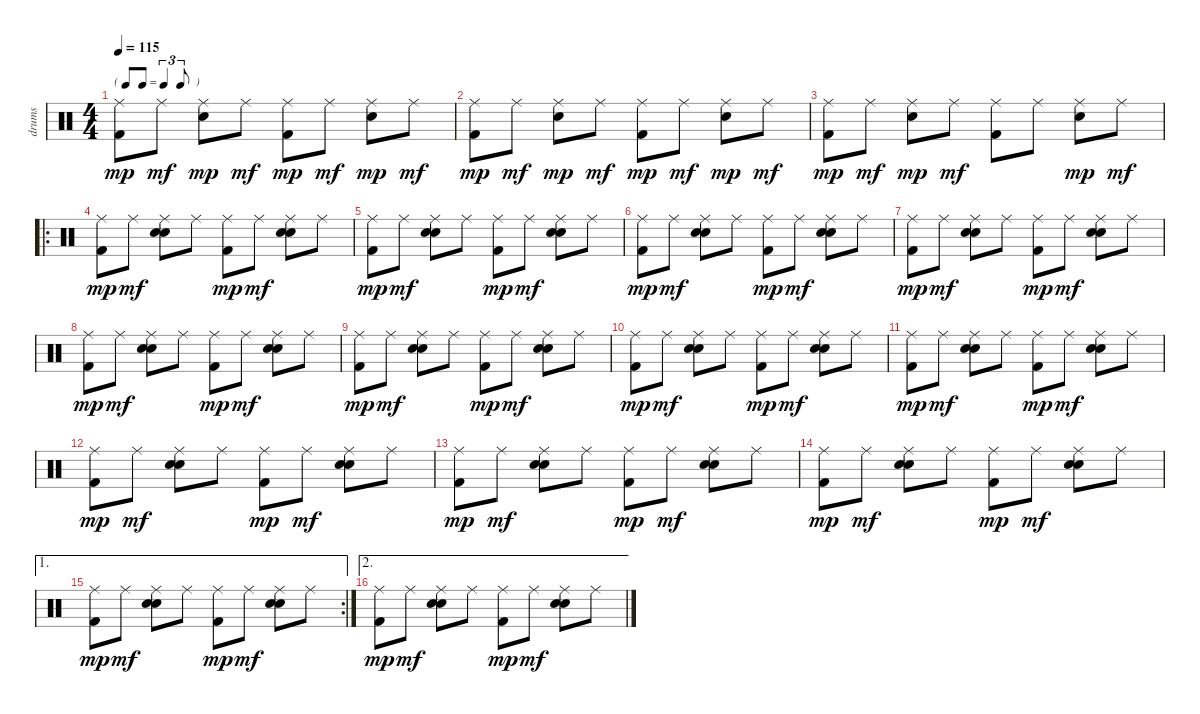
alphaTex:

\track ("drums" "drums") {instrument percussion}
\staff {score}
\articulation defaults
\ts (4 4)
\tf triplet8th
\tempo 115
\clef neutral
\ks c
("Ride (middle)" "Kick (hit) 2").8{dy mp} "Ride (middle)".8{dy mf} ("Ride (middle)" "Snare (hit) 2").8{dy mp} "Ride (middle)".8{dy mf} ("Ride (middle)" "Kick (hit) 2").8{dy mp} "Ride (middle)".8{dy mf} ("Ride (middle)" "Snare (hit) 2").8{dy mp} "Ride (middle)".8{dy mf} |
("Ride (middle)" "Kick (hit) 2").8{dy mp} "Ride (middle)".8{dy mf} ("Ride (middle)" "Snare (hit) 2").8{dy mp} "Ride (middle)".8{dy mf} ("Ride (middle)" "Kick (hit) 2").8{dy mp} "Ride (middle)".8{dy mf} ("Ride (middle)" "Snare (hit) 2").8{dy mp} "Ride (middle)".8{dy mf} |
("Ride (middle)" "Kick (hit) 2").8{dy mp} "Ride (middle)".8{dy mf} ("Ride (middle)" "Snare (hit) 2").8{dy mp} "Ride (middle)".8{dy mf} ("Ride (middle)" "Kick (hit) 2").8 "Ride (middle)".8 ("Ride (middle)" "Snare (hit) 2").8{dy mp} "Ride (middle)".8{dy mf} |
\ro
("Ride (middle)" "Kick (hit) 2").8{dy mp} "Ride (middle)".8{dy mf} ("Ride (middle)" "Snare (hit) 2" "Hand Clap (hit)").8 "Ride (middle)".8 ("Ride (middle)" "Kick (hit) 2").8{dy mp} "Ride (middle)".8{dy mf} ("Ride (middle)" "Snare (hit) 2" "Hand Clap (hit)").8 "Ride (middle)".8 |
("Ride (middle)" "Kick (hit) 2").8{dy mp} "Ride (middle)".8{dy mf} ("Ride (middle)" "Snare (hit) 2" "Hand Clap (hit)").8 "Ride (middle)".8 ("Ride (middle)" "Kick (hit) 2").8{dy mp} "Ride (middle)".8{dy mf} ("Ride (middle)" "Snare (hit) 2" "Hand Clap (hit)").8 "Ride (middle)".8 |
("Ride (middle)" "Kick (hit) 2").8{dy mp} "Ride (middle)".8{dy mf} ("Ride (middle)" "Snare (hit) 2" "Hand Clap (hit)").8 "Ride (middle)".8 ("Ride (middle)" "Kick (hit) 2").8{dy mp} "Ride (middle)".8{dy mf} ("Ride (middle)" "Snare (hit) 2" "Hand Clap (hit)").8 "Ride (middle)".8 |
("Ride (middle)" "Kick (hit) 2").8{dy mp} "Ride (middle)".8{dy mf} ("Ride (middle)" "Snare (hit) 2" "Hand Clap (hit)").8 "Ride (middle)".8 ("Ride (middle)" "Kick (hit) 2").8{dy mp} "Ride (middle)".8{dy mf} ("Ride (middle)" "Snare (hit) 2" "Hand Clap (hit)").8 "Ride (middle)".8 |
("Ride (middle)" "Kick (hit) 2").8{dy mp} "Ride (middle)".8{dy mf} ("Ride (middle)" "Snare (hit) 2" "Hand Clap (hit)").8 "Ride (middle)".8 ("Ride (middle)" "Kick (hit) 2").8{dy mp} "Ride (middle)".8{dy mf} ("Ride (middle)" "Snare (hit) 2" "Hand Clap (hit)").8 "Ride (middle)".8 |
("Ride (middle)" "Kick (hit) 2").8{dy mp} "Ride (middle)".8{dy mf} ("Ride (middle)" "Snare (hit) 2" "Hand Clap (hit)").8 "Ride (middle)".8 ("Ride (middle)" "Kick (hit) 2").8{dy mp} "Ride (middle)".8{dy mf} ("Ride (middle)" "Snare (hit) 2" "Hand Clap (hit)").8 "Ride (middle)".8 |
("Ride (middle)" "Kick (hit) 2").8{dy mp} "Ride (middle)".8{dy mf} ("Ride (middle)" "Snare (hit) 2" "Hand Clap (hit)").8 "Ride (middle)".8 ("Ride (middle)" "Kick (hit) 2").8{dy mp} "Ride (middle)".8{dy mf} ("Ride (middle)" "Snare (hit) 2" "Hand Clap (hit)").8 "Ride (middle)".8 |
("Ride (middle)" "Kick (hit) 2").8{dy mp} "Ride (middle)".8{dy mf} ("Ride (middle)" "Snare (hit) 2" "Hand Clap (hit)").8 "Ride (middle)".8 ("Ride (middle)" "Kick (hit) 2").8{dy mp} "Ride (middle)".8{dy mf} ("Ride (middle)" "Snare (hit) 2" "Hand Clap (hit)").8 "Ride (middle)".8 |
("Ride (middle)" "Kick (hit) 2").8{dy mp} "Ride (middle)".8{dy mf} ("Ride (middle)" "Snare (hit) 2" "Hand Clap (hit)").8 "Ride (middle)".8 ("Ride (middle)" "Kick (hit) 2").8{dy mp} "Ride (middle)".8{dy mf} ("Ride (middle)" "Snare (hit) 2" "Hand Clap (hit)").8 "Ride (middle)".8 |
("Ride (middle)" "Kick (hit) 2").8{dy mp} "Ride (middle)".8{dy mf} ("Ride (middle)" "Snare (hit) 2" "Hand Clap (hit)").8 "Ride (middle)".8 ("Ride (middle)" "Kick (hit) 2").8{dy mp} "Ride (middle)".8{dy mf} ("Ride (middle)" "Snare (hit) 2" "Hand Clap (hit)").8 "Ride (middle)".8 |
("Ride (middle)" "Kick (hit) 2").8{dy mp} "Ride (middle)".8{dy mf} ("Ride (middle)" "Snare (hit) 2" "Hand Clap (hit)").8 "Ride (middle)".8 ("Ride (middle)" "Kick (hit) 2").8{dy mp} "Ride (middle)".8{dy mf} ("Ride (middle)" "Snare (hit) 2" "Hand Clap (hit)").8 "Ride (middle)".8 |
\ae 1
\rc 2
("Ride (middle)" "Kick (hit) 2").8{dy mp} "Ride (middle)".8{dy mf} ("Ride (middle)" "Snare (hit) 2" "Hand Clap (hit)").8 "Ride (middle)".8 ("Ride (middle)" "Kick (hit) 2").8{dy mp} "Ride (middle)".8{dy mf} ("Ride (middle)" "Snare (hit) 2" "Hand Clap (hit)").8 "Ride (middle)".8 |
\ae 2
("Ride (middle)" "Kick (hit) 2").8{dy mp} "Ride (middle)".8{dy mf} ("Ride (middle)" "Snare (hit) 2" "Hand Clap (hit)").8 "Ride (middle)".8 ("Ride (middle)" "Kick (hit) 2").8{dy mp} "Ride (middle)".8{dy mf} ("Ride (middle)" "Snare (hit) 2" "Hand Clap (hit)").8 "Ride (middle)".8
